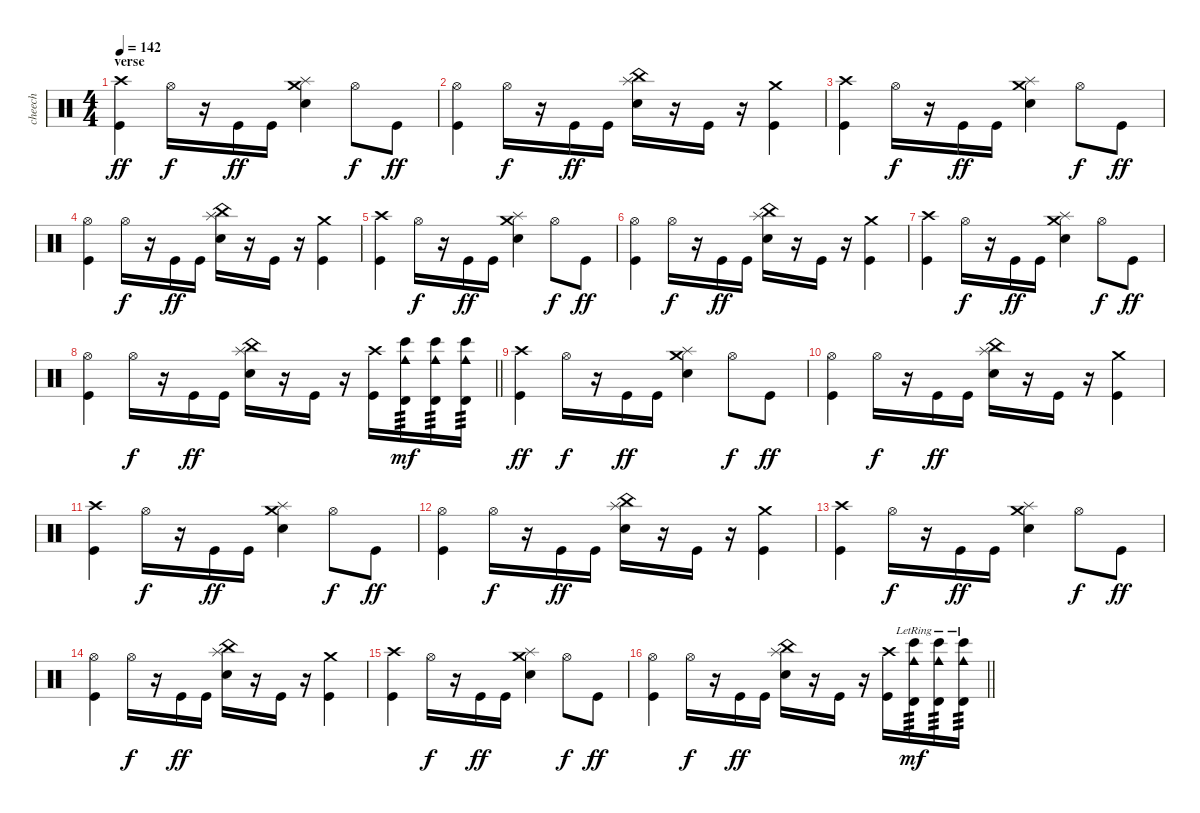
\track ("cheech" "cheech") {instrument percussion}
\staff {score}
\articulation defaults
\ts (4 4)
\section ("" "verse")
\tempo 142
\clef neutral
\ks c
("Crash high (hit)" "Kick (hit)").4{dy ff} "Hi-Hat (open)".16{dy f} r.16 "Kick (hit)".16{dy ff} "Kick (hit)".16 ("Crash medium (hit)" "Splash (hit)" "Electric Snare (hit)").4 "Hi-Hat (open)".8{dy f} "Kick (hit)".8{dy ff} |
("Hi-Hat (open)" "Kick (hit)").4 "Hi-Hat (open)".16{dy f} r.16 "Kick (hit)".16{dy ff} "Kick (hit)".16 ("China (hit)" "Splash (hit)" "Electric Snare (hit)").16 r.16 "Kick (hit)".16 r.16 ("Crash medium (hit)" "Kick (hit)").4 |
("Crash high (hit)" "Kick (hit)").4 "Hi-Hat (open)".16{dy f} r.16 "Kick (hit)".16{dy ff} "Kick (hit)".16 ("Crash medium (hit)" "Splash (hit)" "Electric Snare (hit)").4 "Hi-Hat (open)".8{dy f} "Kick (hit)".8{dy ff} |
("Hi-Hat (open)" "Kick (hit)").4 "Hi-Hat (open)".16{dy f} r.16 "Kick (hit)".16{dy ff} "Kick (hit)".16 ("China (hit)" "Splash (hit)" "Electric Snare (hit)").16 r.16 "Kick (hit)".16 r.16 ("Crash medium (hit)" "Kick (hit)").4 |
("Crash high (hit)" "Kick (hit)").4 "Hi-Hat (open)".16{dy f} r.16 "Kick (hit)".16{dy ff} "Kick (hit)".16 ("Crash medium (hit)" "Splash (hit)" "Electric Snare (hit)").4 "Hi-Hat (open)".8{dy f} "Kick (hit)".8{dy ff} |
("Hi-Hat (open)" "Kick (hit)").4 "Hi-Hat (open)".16{dy f} r.16 "Kick (hit)".16{dy ff} "Kick (hit)".16 ("China (hit)" "Splash (hit)" "Electric Snare (hit)").16 r.16 "Kick (hit)".16 r.16 ("Crash medium (hit)" "Kick (hit)").4 |
("Crash high (hit)" "Kick (hit)").4 "Hi-Hat (open)".16{dy f} r.16 "Kick (hit)".16{dy ff} "Kick (hit)".16 ("Crash medium (hit)" "Splash (hit)" "Electric Snare (hit)").4 "Hi-Hat (open)".8{dy f} "Kick (hit)".8{dy ff} |
\barLineRight lightlight
("Hi-Hat (open)" "Kick (hit)").4 "Hi-Hat (open)".16{dy f} r.16 "Kick (hit)".16{dy ff} "Kick (hit)".16 ("China (hit)" "Splash (hit)" "Electric Snare (hit)").16 r.16 "Kick (hit)".16 r.16 ("Crash high (hit)" "Kick (hit)").16 ("Cowbell medium (hit)" "Timbale high (hit)" "Bongo High (hit)").16{tp 3 dy mf} ("Cowbell medium (hit)" "Timbale high (hit)" "Bongo High (hit)").16{tp 3} ("Cowbell medium (hit)" "Timbale high (hit)" "Bongo High (hit)").16{tp 3} |
("Crash high (hit)" "Kick (hit)").4{dy ff} "Hi-Hat (open)".16{dy f} r.16 "Kick (hit)".16{dy ff} "Kick (hit)".16 ("Crash medium (hit)" "Splash (hit)" "Electric Snare (hit)").4 "Hi-Hat (open)".8{dy f} "Kick (hit)".8{dy ff} |
("Hi-Hat (open)" "Kick (hit)").4 "Hi-Hat (open)".16{dy f} r.16 "Kick (hit)".16{dy ff} "Kick (hit)".16 ("China (hit)" "Splash (hit)" "Electric Snare (hit)").16 r.16 "Kick (hit)".16 r.16 ("Crash medium (hit)" "Kick (hit)").4 |
("Crash high (hit)" "Kick (hit)").4 "Hi-Hat (open)".16{dy f} r.16 "Kick (hit)".16{dy ff} "Kick (hit)".16 ("Crash medium (hit)" "Splash (hit)" "Electric Snare (hit)").4 "Hi-Hat (open)".8{dy f} "Kick (hit)".8{dy ff} |
("Hi-Hat (open)" "Kick (hit)").4 "Hi-Hat (open)".16{dy f} r.16 "Kick (hit)".16{dy ff} "Kick (hit)".16 ("China (hit)" "Splash (hit)" "Electric Snare (hit)").16 r.16 "Kick (hit)".16 r.16 ("Crash medium (hit)" "Kick (hit)").4 |
("Crash high (hit)" "Kick (hit)").4 "Hi-Hat (open)".16{dy f} r.16 "Kick (hit)".16{dy ff} "Kick (hit)".16 ("Crash medium (hit)" "Splash (hit)" "Electric Snare (hit)").4 "Hi-Hat (open)".8{dy f} "Kick (hit)".8{dy ff} |
("Hi-Hat (open)" "Kick (hit)").4 "Hi-Hat (open)".16{dy f} r.16 "Kick (hit)".16{dy ff} "Kick (hit)".16 ("China (hit)" "Splash (hit)" "Electric Snare (hit)").16 r.16 "Kick (hit)".16 r.16 ("Crash medium (hit)" "Kick (hit)").4 |
("Crash high (hit)" "Kick (hit)").4 "Hi-Hat (open)".16{dy f} r.16 "Kick (hit)".16{dy ff} "Kick (hit)".16 ("Crash medium (hit)" "Splash (hit)" "Electric Snare (hit)").4 "Hi-Hat (open)".8{dy f} "Kick (hit)".8{dy ff} |
\barLineRight lightlight
("Hi-Hat (open)" "Kick (hit)").4 "Hi-Hat (open)".16{dy f} r.16 "Kick (hit)".16{dy ff} "Kick (hit)".16 ("China (hit)" "Splash (hit)" "Electric Snare (hit)").16 r.16 "Kick (hit)".16 r.16 ("Crash high (hit)" "Kick (hit)").16 ("Cowbell medium (hit)"{lr} "Timbale high (hit)"{lr} "Bongo High (hit)").16{tp 3 dy mf} ("Cowbell medium (hit)"{lr} "Timbale high (hit)" "Bongo High (hit)").16{tp 3} ("Cowbell medium (hit)"{lr} "Timbale high (hit)" "Bongo High (hit)").16{tp 3}
